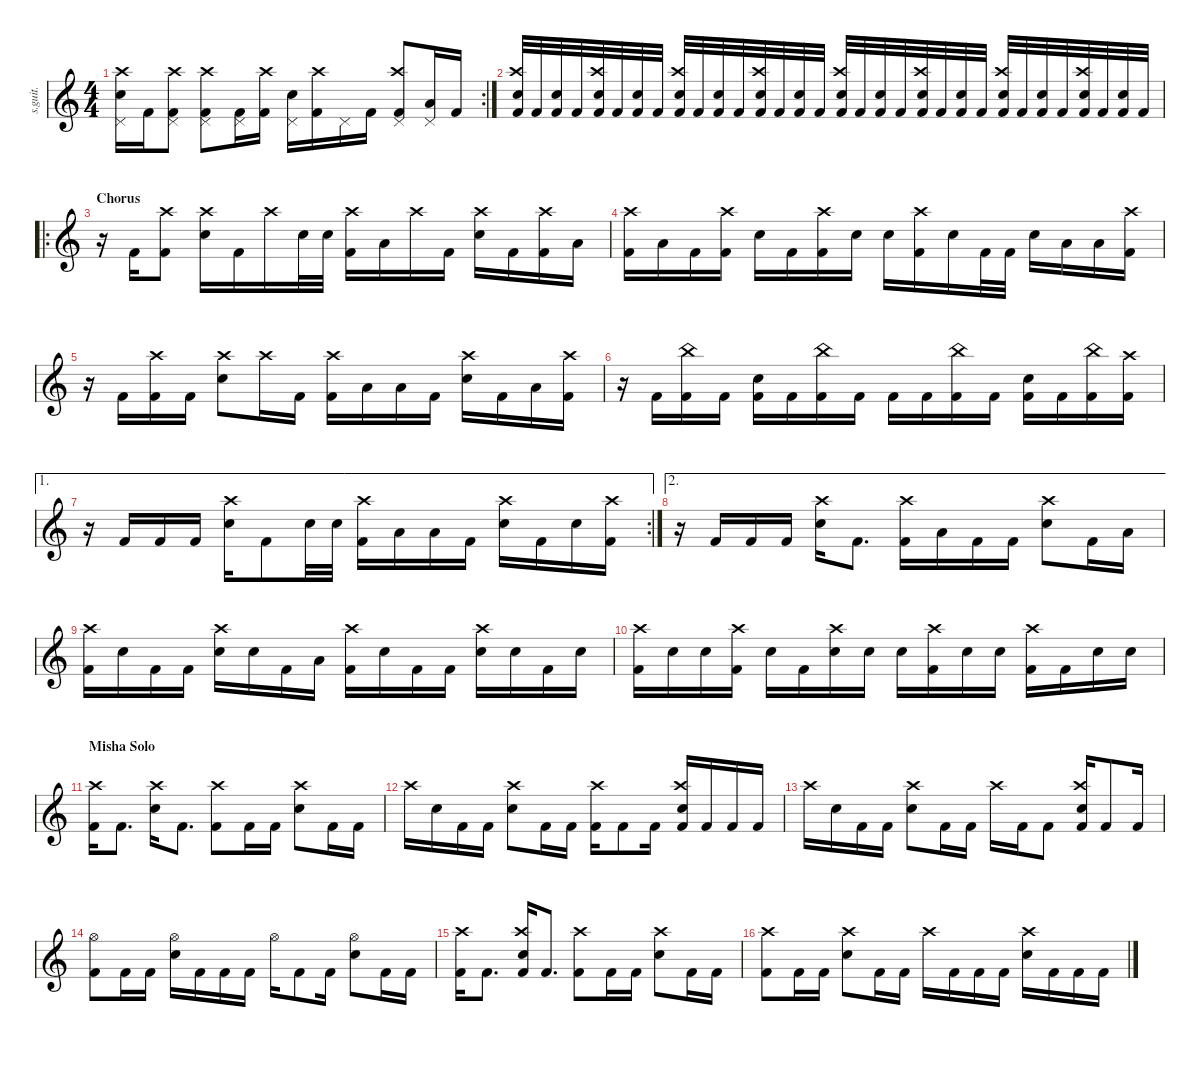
\defaultSystemsLayout 4
\hideDynamics
\bracketExtendMode nobrackets
\track ("" "s.guit.") {instrument percussion}
\staff {score}
\articulation defaults
\rc 2
\ts (4 4)
\tempo (116 hide)
\clef g2
\ks c
("Snare (hit) 2" "Pedal Hi-Hat (hit)" "Crash high (hit)").16{lyrics (0 "") lyrics (1 "") lyrics (2 "") lyrics (3 "") lyrics (4 "") dy f} "Kick (hit) 2".16{lyrics (0 "") lyrics (1 "") lyrics (2 "") lyrics (3 "") lyrics (4 "")} ("Kick (hit) 2" "Pedal Hi-Hat (hit)" "Crash high (hit)").8{lyrics (0 "") lyrics (1 "") lyrics (2 "") lyrics (3 "") lyrics (4 "")} ("Kick (hit) 2" "Pedal Hi-Hat (hit)" "Crash high (hit)").8{lyrics (0 "") lyrics (1 "") lyrics (2 "") lyrics (3 "") lyrics (4 "")} ("Kick (hit) 2" "Pedal Hi-Hat (hit)").16{lyrics (0 "") lyrics (1 "") lyrics (2 "") lyrics (3 "") lyrics (4 "")} ("Kick (hit) 2" "Crash high (hit)").16{lyrics (0 "") lyrics (1 "") lyrics (2 "") lyrics (3 "") lyrics (4 "")} ("Snare (hit) 2" "Pedal Hi-Hat (hit)").16{lyrics (0 "") lyrics (1 "") lyrics (2 "") lyrics (3 "") lyrics (4 "")} ("Kick (hit) 2" "Crash high (hit)").16{lyrics (0 "") lyrics (1 "") lyrics (2 "") lyrics (3 "") lyrics (4 "")} "Pedal Hi-Hat (hit)".16{lyrics (0 "") lyrics (1 "") lyrics (2 "") lyrics (3 "") lyrics (4 "")} "Kick (hit) 2".16{lyrics (0 "") lyrics (1 "") lyrics (2 "") lyrics (3 "") lyrics (4 "")} ("Kick (hit) 2" "Pedal Hi-Hat (hit)" "Crash high (hit)").8{lyrics (0 "") lyrics (1 "") lyrics (2 "") lyrics (3 "") lyrics (4 "")} ("Low Floor Tom (hit)" "Pedal Hi-Hat (hit)").16{lyrics (0 "") lyrics (1 "") lyrics (2 "") lyrics (3 "") lyrics (4 "")} "Kick (hit) 2".16{lyrics (0 "") lyrics (1 "") lyrics (2 "") lyrics (3 "") lyrics (4 "")} |
("Kick (hit) 2" "Snare (hit) 2" "Crash high (hit)").32{lyrics (0 "") lyrics (1 "") lyrics (2 "") lyrics (3 "") lyrics (4 "")} "Kick (hit) 2".32{lyrics (0 "") lyrics (1 "") lyrics (2 "") lyrics (3 "") lyrics (4 "")} ("Kick (hit) 2" "Snare (hit) 2").32{lyrics (0 "") lyrics (1 "") lyrics (2 "") lyrics (3 "") lyrics (4 "")} "Kick (hit) 2".32{lyrics (0 "") lyrics (1 "") lyrics (2 "") lyrics (3 "") lyrics (4 "")} ("Kick (hit) 2" "Snare (hit) 2" "Crash high (hit)").32{lyrics (0 "") lyrics (1 "") lyrics (2 "") lyrics (3 "") lyrics (4 "")} "Kick (hit) 2".32{lyrics (0 "") lyrics (1 "") lyrics (2 "") lyrics (3 "") lyrics (4 "")} ("Kick (hit) 2" "Snare (hit) 2").32{lyrics (0 "") lyrics (1 "") lyrics (2 "") lyrics (3 "") lyrics (4 "")} "Kick (hit) 2".32{lyrics (0 "") lyrics (1 "") lyrics (2 "") lyrics (3 "") lyrics (4 "")} ("Kick (hit) 2" "Snare (hit) 2" "Crash high (hit)").32{lyrics (0 "") lyrics (1 "") lyrics (2 "") lyrics (3 "") lyrics (4 "")} "Kick (hit) 2".32{lyrics (0 "") lyrics (1 "") lyrics (2 "") lyrics (3 "") lyrics (4 "")} ("Kick (hit) 2" "Snare (hit) 2").32{lyrics (0 "") lyrics (1 "") lyrics (2 "") lyrics (3 "") lyrics (4 "")} "Kick (hit) 2".32{lyrics (0 "") lyrics (1 "") lyrics (2 "") lyrics (3 "") lyrics (4 "")} ("Kick (hit) 2" "Snare (hit) 2" "Crash high (hit)").32{lyrics (0 "") lyrics (1 "") lyrics (2 "") lyrics (3 "") lyrics (4 "")} "Kick (hit) 2".32{lyrics (0 "") lyrics (1 "") lyrics (2 "") lyrics (3 "") lyrics (4 "")} ("Kick (hit) 2" "Snare (hit) 2").32{lyrics (0 "") lyrics (1 "") lyrics (2 "") lyrics (3 "") lyrics (4 "")} "Kick (hit) 2".32{lyrics (0 "") lyrics (1 "") lyrics (2 "") lyrics (3 "") lyrics (4 "")} ("Kick (hit) 2" "Snare (hit) 2" "Crash high (hit)").32{lyrics (0 "") lyrics (1 "") lyrics (2 "") lyrics (3 "") lyrics (4 "")} "Kick (hit) 2".32{lyrics (0 "") lyrics (1 "") lyrics (2 "") lyrics (3 "") lyrics (4 "")} ("Kick (hit) 2" "Snare (hit) 2").32{lyrics (0 "") lyrics (1 "") lyrics (2 "") lyrics (3 "") lyrics (4 "")} "Kick (hit) 2".32{lyrics (0 "") lyrics (1 "") lyrics (2 "") lyrics (3 "") lyrics (4 "")} ("Kick (hit) 2" "Snare (hit) 2" "Crash high (hit)").32{lyrics (0 "") lyrics (1 "") lyrics (2 "") lyrics (3 "") lyrics (4 "")} "Kick (hit) 2".32{lyrics (0 "") lyrics (1 "") lyrics (2 "") lyrics (3 "") lyrics (4 "")} ("Kick (hit) 2" "Snare (hit) 2").32{lyrics (0 "") lyrics (1 "") lyrics (2 "") lyrics (3 "") lyrics (4 "")} "Kick (hit) 2".32{lyrics (0 "") lyrics (1 "") lyrics (2 "") lyrics (3 "") lyrics (4 "")} ("Kick (hit) 2" "Snare (hit) 2" "Crash high (hit)").32{lyrics (0 "") lyrics (1 "") lyrics (2 "") lyrics (3 "") lyrics (4 "")} "Kick (hit) 2".32{lyrics (0 "") lyrics (1 "") lyrics (2 "") lyrics (3 "") lyrics (4 "")} ("Kick (hit) 2" "Snare (hit) 2").32{lyrics (0 "") lyrics (1 "") lyrics (2 "") lyrics (3 "") lyrics (4 "")} "Kick (hit) 2".32{lyrics (0 "") lyrics (1 "") lyrics (2 "") lyrics (3 "") lyrics (4 "")} ("Kick (hit) 2" "Snare (hit) 2" "Crash high (hit)").32{lyrics (0 "") lyrics (1 "") lyrics (2 "") lyrics (3 "") lyrics (4 "")} "Kick (hit) 2".32{lyrics (0 "") lyrics (1 "") lyrics (2 "") lyrics (3 "") lyrics (4 "")} ("Kick (hit) 2" "Snare (hit) 2").32{lyrics (0 "") lyrics (1 "") lyrics (2 "") lyrics (3 "") lyrics (4 "")} "Kick (hit) 2".32{lyrics (0 "") lyrics (1 "") lyrics (2 "") lyrics (3 "") lyrics (4 "")} |
\ro
\section ("" "Chorus")
r.16 "Kick (hit) 2".16{lyrics (0 "") lyrics (1 "") lyrics (2 "") lyrics (3 "") lyrics (4 "")} ("Kick (hit) 2" "Crash high (hit)").8{lyrics (0 "") lyrics (1 "") lyrics (2 "") lyrics (3 "") lyrics (4 "")} ("Snare (hit) 2" "Crash high (hit)").16{lyrics (0 "") lyrics (1 "") lyrics (2 "") lyrics (3 "") lyrics (4 "")} "Kick (hit) 2".16{lyrics (0 "") lyrics (1 "") lyrics (2 "") lyrics (3 "") lyrics (4 "")} "Crash high (hit)".16{lyrics (0 "") lyrics (1 "") lyrics (2 "") lyrics (3 "") lyrics (4 "")} "Snare (hit) 2".32{lyrics (0 "") lyrics (1 "") lyrics (2 "") lyrics (3 "") lyrics (4 "")} "Snare (hit) 2".32{lyrics (0 "") lyrics (1 "") lyrics (2 "") lyrics (3 "") lyrics (4 "")} ("Kick (hit) 2" "Crash high (hit)").16{lyrics (0 "") lyrics (1 "") lyrics (2 "") lyrics (3 "") lyrics (4 "")} "Low Tom (hit)".16{lyrics (0 "") lyrics (1 "") lyrics (2 "") lyrics (3 "") lyrics (4 "")} "Crash high (hit)".16{lyrics (0 "") lyrics (1 "") lyrics (2 "") lyrics (3 "") lyrics (4 "")} "Kick (hit) 2".16{lyrics (0 "") lyrics (1 "") lyrics (2 "") lyrics (3 "") lyrics (4 "")} ("Snare (hit) 2" "Crash high (hit)").16{lyrics (0 "") lyrics (1 "") lyrics (2 "") lyrics (3 "") lyrics (4 "")} "Kick (hit) 2".16{lyrics (0 "") lyrics (1 "") lyrics (2 "") lyrics (3 "") lyrics (4 "")} ("Kick (hit) 2" "Crash high (hit)").16{lyrics (0 "") lyrics (1 "") lyrics (2 "") lyrics (3 "") lyrics (4 "")} "Low Floor Tom (hit)".16{lyrics (0 "") lyrics (1 "") lyrics (2 "") lyrics (3 "") lyrics (4 "")} |
("Kick (hit) 2" "Crash high (hit)").16{lyrics (0 "") lyrics (1 "") lyrics (2 "") lyrics (3 "") lyrics (4 "")} "Low Floor Tom (hit)".16{lyrics (0 "") lyrics (1 "") lyrics (2 "") lyrics (3 "") lyrics (4 "")} "Kick (hit) 2".16{lyrics (0 "") lyrics (1 "") lyrics (2 "") lyrics (3 "") lyrics (4 "")} ("Kick (hit) 2" "Crash high (hit)").16{lyrics (0 "") lyrics (1 "") lyrics (2 "") lyrics (3 "") lyrics (4 "")} "Snare (hit) 2".16{lyrics (0 "") lyrics (1 "") lyrics (2 "") lyrics (3 "") lyrics (4 "")} "Kick (hit) 2".16{lyrics (0 "") lyrics (1 "") lyrics (2 "") lyrics (3 "") lyrics (4 "")} ("Kick (hit) 2" "Crash high (hit)").16{lyrics (0 "") lyrics (1 "") lyrics (2 "") lyrics (3 "") lyrics (4 "")} "Snare (hit) 2".16{lyrics (0 "") lyrics (1 "") lyrics (2 "") lyrics (3 "") lyrics (4 "")} "Snare (hit) 2".16{lyrics (0 "") lyrics (1 "") lyrics (2 "") lyrics (3 "") lyrics (4 "")} ("Kick (hit) 2" "Crash high (hit)").16{lyrics (0 "") lyrics (1 "") lyrics (2 "") lyrics (3 "") lyrics (4 "")} "Snare (hit) 2".16{lyrics (0 "") lyrics (1 "") lyrics (2 "") lyrics (3 "") lyrics (4 "")} "Kick (hit) 2".32{lyrics (0 "") lyrics (1 "") lyrics (2 "") lyrics (3 "") lyrics (4 "")} "Kick (hit) 2".32{lyrics (0 "") lyrics (1 "") lyrics (2 "") lyrics (3 "") lyrics (4 "")} "Snare (hit) 2".16{lyrics (0 "") lyrics (1 "") lyrics (2 "") lyrics (3 "") lyrics (4 "")} "Low Tom (hit)".16{lyrics (0 "") lyrics (1 "") lyrics (2 "") lyrics (3 "") lyrics (4 "")} "Low Floor Tom (hit)".16{lyrics (0 "") lyrics (1 "") lyrics (2 "") lyrics (3 "") lyrics (4 "")} ("Kick (hit) 2" "Crash high (hit)").16{lyrics (0 "") lyrics (1 "") lyrics (2 "") lyrics (3 "") lyrics (4 "")} |
r.16 "Kick (hit) 2".16{lyrics (0 "") lyrics (1 "") lyrics (2 "") lyrics (3 "") lyrics (4 "")} ("Kick (hit) 2" "Crash high (hit)").16{lyrics (0 "") lyrics (1 "") lyrics (2 "") lyrics (3 "") lyrics (4 "")} "Kick (hit) 2".16{lyrics (0 "") lyrics (1 "") lyrics (2 "") lyrics (3 "") lyrics (4 "")} ("Snare (hit) 2" "Crash high (hit)").8{lyrics (0 "") lyrics (1 "") lyrics (2 "") lyrics (3 "") lyrics (4 "")} "Crash high (hit)".16{lyrics (0 "") lyrics (1 "") lyrics (2 "") lyrics (3 "") lyrics (4 "")} "Kick (hit) 2".16{lyrics (0 "") lyrics (1 "") lyrics (2 "") lyrics (3 "") lyrics (4 "")} ("Kick (hit) 2" "Crash high (hit)").16{lyrics (0 "") lyrics (1 "") lyrics (2 "") lyrics (3 "") lyrics (4 "")} "Low Floor Tom (hit)".16{lyrics (0 "") lyrics (1 "") lyrics (2 "") lyrics (3 "") lyrics (4 "")} "Low Floor Tom (hit)".16{lyrics (0 "") lyrics (1 "") lyrics (2 "") lyrics (3 "") lyrics (4 "")} "Kick (hit) 2".16{lyrics (0 "") lyrics (1 "") lyrics (2 "") lyrics (3 "") lyrics (4 "")} ("Snare (hit) 2" "Crash high (hit)").16{lyrics (0 "") lyrics (1 "") lyrics (2 "") lyrics (3 "") lyrics (4 "")} "Kick (hit) 2".16{lyrics (0 "") lyrics (1 "") lyrics (2 "") lyrics (3 "") lyrics (4 "")} "Low Floor Tom (hit)".16{lyrics (0 "") lyrics (1 "") lyrics (2 "") lyrics (3 "") lyrics (4 "")} ("Kick (hit) 2" "Crash high (hit)").16{lyrics (0 "") lyrics (1 "") lyrics (2 "") lyrics (3 "") lyrics (4 "")} |
r.16 "Kick (hit) 2".16{lyrics (0 "") lyrics (1 "") lyrics (2 "") lyrics (3 "") lyrics (4 "")} ("Kick (hit) 2" "China (hit)").16{lyrics (0 "") lyrics (1 "") lyrics (2 "") lyrics (3 "") lyrics (4 "")} "Kick (hit) 2".16{lyrics (0 "") lyrics (1 "") lyrics (2 "") lyrics (3 "") lyrics (4 "")} ("Kick (hit) 2" "Snare (hit) 2").16{lyrics (0 "") lyrics (1 "") lyrics (2 "") lyrics (3 "") lyrics (4 "")} "Kick (hit) 2".16{lyrics (0 "") lyrics (1 "") lyrics (2 "") lyrics (3 "") lyrics (4 "")} ("Kick (hit) 2" "China (hit)").16{lyrics (0 "") lyrics (1 "") lyrics (2 "") lyrics (3 "") lyrics (4 "")} "Kick (hit) 2".16{lyrics (0 "") lyrics (1 "") lyrics (2 "") lyrics (3 "") lyrics (4 "")} "Kick (hit) 2".16{lyrics (0 "") lyrics (1 "") lyrics (2 "") lyrics (3 "") lyrics (4 "")} "Kick (hit) 2".16{lyrics (0 "") lyrics (1 "") lyrics (2 "") lyrics (3 "") lyrics (4 "")} ("Kick (hit) 2" "China (hit)").16{lyrics (0 "") lyrics (1 "") lyrics (2 "") lyrics (3 "") lyrics (4 "")} "Kick (hit) 2".16{lyrics (0 "") lyrics (1 "") lyrics (2 "") lyrics (3 "") lyrics (4 "")} ("Kick (hit) 2" "Snare (hit) 2").16{lyrics (0 "") lyrics (1 "") lyrics (2 "") lyrics (3 "") lyrics (4 "")} "Kick (hit) 2".16{lyrics (0 "") lyrics (1 "") lyrics (2 "") lyrics (3 "") lyrics (4 "")} ("Kick (hit) 2" "China (hit)").16{lyrics (0 "") lyrics (1 "") lyrics (2 "") lyrics (3 "") lyrics (4 "")} ("Kick (hit) 2" "Crash high (hit)").16{lyrics (0 "") lyrics (1 "") lyrics (2 "") lyrics (3 "") lyrics (4 "")} |
\ae 1
\rc 2
r.16 "Kick (hit) 2".16{lyrics (0 "") lyrics (1 "") lyrics (2 "") lyrics (3 "") lyrics (4 "")} "Kick (hit) 2".16{lyrics (0 "") lyrics (1 "") lyrics (2 "") lyrics (3 "") lyrics (4 "")} "Kick (hit) 2".16{lyrics (0 "") lyrics (1 "") lyrics (2 "") lyrics (3 "") lyrics (4 "")} ("Snare (hit) 2" "Crash high (hit)").16{lyrics (0 "") lyrics (1 "") lyrics (2 "") lyrics (3 "") lyrics (4 "")} "Kick (hit) 2".8{lyrics (0 "") lyrics (1 "") lyrics (2 "") lyrics (3 "") lyrics (4 "")} "Snare (hit) 2".32{lyrics (0 "") lyrics (1 "") lyrics (2 "") lyrics (3 "") lyrics (4 "")} "Snare (hit) 2".32{lyrics (0 "") lyrics (1 "") lyrics (2 "") lyrics (3 "") lyrics (4 "")} ("Kick (hit) 2" "Crash high (hit)").16{lyrics (0 "") lyrics (1 "") lyrics (2 "") lyrics (3 "") lyrics (4 "")} "Low Tom (hit)".16{lyrics (0 "") lyrics (1 "") lyrics (2 "") lyrics (3 "") lyrics (4 "")} "Low Floor Tom (hit)".16{lyrics (0 "") lyrics (1 "") lyrics (2 "") lyrics (3 "") lyrics (4 "")} "Kick (hit) 2".16{lyrics (0 "") lyrics (1 "") lyrics (2 "") lyrics (3 "") lyrics (4 "")} ("Snare (hit) 2" "Crash high (hit)").16{lyrics (0 "") lyrics (1 "") lyrics (2 "") lyrics (3 "") lyrics (4 "")} "Kick (hit) 2".16{lyrics (0 "") lyrics (1 "") lyrics (2 "") lyrics (3 "") lyrics (4 "")} "Snare (hit) 2".16{lyrics (0 "") lyrics (1 "") lyrics (2 "") lyrics (3 "") lyrics (4 "")} ("Kick (hit) 2" "Crash high (hit)").16{lyrics (0 "") lyrics (1 "") lyrics (2 "") lyrics (3 "") lyrics (4 "")} |
\ae 2
r.16 "Kick (hit) 2".16{lyrics (0 "") lyrics (1 "") lyrics (2 "") lyrics (3 "") lyrics (4 "")} "Kick (hit) 2".16{lyrics (0 "") lyrics (1 "") lyrics (2 "") lyrics (3 "") lyrics (4 "")} "Kick (hit) 2".16{lyrics (0 "") lyrics (1 "") lyrics (2 "") lyrics (3 "") lyrics (4 "")} ("Snare (hit) 2" "Crash high (hit)").16{lyrics (0 "") lyrics (1 "") lyrics (2 "") lyrics (3 "") lyrics (4 "")} "Kick (hit) 2".8{d lyrics (0 "") lyrics (1 "") lyrics (2 "") lyrics (3 "") lyrics (4 "")} ("Kick (hit) 2" "Crash high (hit)").16{lyrics (0 "") lyrics (1 "") lyrics (2 "") lyrics (3 "") lyrics (4 "")} "Low Tom (hit)".16{lyrics (0 "") lyrics (1 "") lyrics (2 "") lyrics (3 "") lyrics (4 "")} "Kick (hit) 2".16{lyrics (0 "") lyrics (1 "") lyrics (2 "") lyrics (3 "") lyrics (4 "")} "Kick (hit) 2".16{lyrics (0 "") lyrics (1 "") lyrics (2 "") lyrics (3 "") lyrics (4 "")} ("Snare (hit) 2" "Crash high (hit)").8{lyrics (0 "") lyrics (1 "") lyrics (2 "") lyrics (3 "") lyrics (4 "")} "Kick (hit) 2".16{lyrics (0 "") lyrics (1 "") lyrics (2 "") lyrics (3 "") lyrics (4 "")} "Low Tom (hit)".16{lyrics (0 "") lyrics (1 "") lyrics (2 "") lyrics (3 "") lyrics (4 "")} |
("Kick (hit) 2" "Crash high (hit)").16{lyrics (0 "") lyrics (1 "") lyrics (2 "") lyrics (3 "") lyrics (4 "")} "Snare (hit) 2".16{lyrics (0 "") lyrics (1 "") lyrics (2 "") lyrics (3 "") lyrics (4 "")} "Kick (hit) 2".16{lyrics (0 "") lyrics (1 "") lyrics (2 "") lyrics (3 "") lyrics (4 "")} "Kick (hit) 2".16{lyrics (0 "") lyrics (1 "") lyrics (2 "") lyrics (3 "") lyrics (4 "")} ("Snare (hit) 2" "Crash high (hit)").16{lyrics (0 "") lyrics (1 "") lyrics (2 "") lyrics (3 "") lyrics (4 "")} "Snare (hit) 2".16{lyrics (0 "") lyrics (1 "") lyrics (2 "") lyrics (3 "") lyrics (4 "")} "Kick (hit) 2".16{lyrics (0 "") lyrics (1 "") lyrics (2 "") lyrics (3 "") lyrics (4 "")} "Low Tom (hit)".16{lyrics (0 "") lyrics (1 "") lyrics (2 "") lyrics (3 "") lyrics (4 "")} ("Kick (hit) 2" "Crash high (hit)").16{lyrics (0 "") lyrics (1 "") lyrics (2 "") lyrics (3 "") lyrics (4 "")} "Snare (hit) 2".16{lyrics (0 "") lyrics (1 "") lyrics (2 "") lyrics (3 "") lyrics (4 "")} "Kick (hit) 2".16{lyrics (0 "") lyrics (1 "") lyrics (2 "") lyrics (3 "") lyrics (4 "")} "Kick (hit) 2".16{lyrics (0 "") lyrics (1 "") lyrics (2 "") lyrics (3 "") lyrics (4 "")} ("Snare (hit) 2" "Crash high (hit)").16{lyrics (0 "") lyrics (1 "") lyrics (2 "") lyrics (3 "") lyrics (4 "")} "Snare (hit) 2".16{lyrics (0 "") lyrics (1 "") lyrics (2 "") lyrics (3 "") lyrics (4 "")} "Kick (hit) 2".16{lyrics (0 "") lyrics (1 "") lyrics (2 "") lyrics (3 "") lyrics (4 "")} "Snare (hit) 2".16{lyrics (0 "") lyrics (1 "") lyrics (2 "") lyrics (3 "") lyrics (4 "")} |
("Kick (hit) 2" "Crash high (hit)").16{lyrics (0 "") lyrics (1 "") lyrics (2 "") lyrics (3 "") lyrics (4 "")} "Snare (hit) 2".16{lyrics (0 "") lyrics (1 "") lyrics (2 "") lyrics (3 "") lyrics (4 "")} "Snare (hit) 2".16{lyrics (0 "") lyrics (1 "") lyrics (2 "") lyrics (3 "") lyrics (4 "")} ("Kick (hit) 2" "Crash high (hit)").16{lyrics (0 "") lyrics (1 "") lyrics (2 "") lyrics (3 "") lyrics (4 "")} "Snare (hit) 2".16{lyrics (0 "") lyrics (1 "") lyrics (2 "") lyrics (3 "") lyrics (4 "")} "Kick (hit) 2".16{lyrics (0 "") lyrics (1 "") lyrics (2 "") lyrics (3 "") lyrics (4 "")} ("Snare (hit) 2" "Crash high (hit)").16{lyrics (0 "") lyrics (1 "") lyrics (2 "") lyrics (3 "") lyrics (4 "")} "Snare (hit) 2".16{lyrics (0 "") lyrics (1 "") lyrics (2 "") lyrics (3 "") lyrics (4 "")} "Snare (hit) 2".16{lyrics (0 "") lyrics (1 "") lyrics (2 "") lyrics (3 "") lyrics (4 "")} ("Kick (hit) 2" "Crash high (hit)").16{lyrics (0 "") lyrics (1 "") lyrics (2 "") lyrics (3 "") lyrics (4 "")} "Snare (hit) 2".16{lyrics (0 "") lyrics (1 "") lyrics (2 "") lyrics (3 "") lyrics (4 "")} "Snare (hit) 2".16{lyrics (0 "") lyrics (1 "") lyrics (2 "") lyrics (3 "") lyrics (4 "")} ("Kick (hit) 2" "Crash high (hit)").16{lyrics (0 "") lyrics (1 "") lyrics (2 "") lyrics (3 "") lyrics (4 "")} "Kick (hit) 2".16{lyrics (0 "") lyrics (1 "") lyrics (2 "") lyrics (3 "") lyrics (4 "")} "Snare (hit) 2".16{lyrics (0 "") lyrics (1 "") lyrics (2 "") lyrics (3 "") lyrics (4 "")} "Snare (hit) 2".16{lyrics (0 "") lyrics (1 "") lyrics (2 "") lyrics (3 "") lyrics (4 "")} |
\section ("" "Misha Solo")
("Kick (hit) 2" "Crash high (hit)").16{lyrics (0 "") lyrics (1 "") lyrics (2 "") lyrics (3 "") lyrics (4 "")} "Kick (hit) 2".8{d lyrics (0 "") lyrics (1 "") lyrics (2 "") lyrics (3 "") lyrics (4 "")} ("Snare (hit) 2" "Crash high (hit)").16{lyrics (0 "") lyrics (1 "") lyrics (2 "") lyrics (3 "") lyrics (4 "")} "Kick (hit) 2".8{d lyrics (0 "") lyrics (1 "") lyrics (2 "") lyrics (3 "") lyrics (4 "")} ("Kick (hit) 2" "Crash high (hit)").8{lyrics (0 "") lyrics (1 "") lyrics (2 "") lyrics (3 "") lyrics (4 "")} "Kick (hit) 2".16{lyrics (0 "") lyrics (1 "") lyrics (2 "") lyrics (3 "") lyrics (4 "")} "Kick (hit) 2".16{lyrics (0 "") lyrics (1 "") lyrics (2 "") lyrics (3 "") lyrics (4 "")} ("Snare (hit) 2" "Crash high (hit)").8{lyrics (0 "") lyrics (1 "") lyrics (2 "") lyrics (3 "") lyrics (4 "")} "Kick (hit) 2".16{lyrics (0 "") lyrics (1 "") lyrics (2 "") lyrics (3 "") lyrics (4 "")} "Kick (hit) 2".16{lyrics (0 "") lyrics (1 "") lyrics (2 "") lyrics (3 "") lyrics (4 "")} |
"Crash high (hit)".16{lyrics (0 "") lyrics (1 "") lyrics (2 "") lyrics (3 "") lyrics (4 "")} "Snare (hit) 2".16{lyrics (0 "") lyrics (1 "") lyrics (2 "") lyrics (3 "") lyrics (4 "")} "Kick (hit) 2".16{lyrics (0 "") lyrics (1 "") lyrics (2 "") lyrics (3 "") lyrics (4 "")} "Kick (hit) 2".16{lyrics (0 "") lyrics (1 "") lyrics (2 "") lyrics (3 "") lyrics (4 "")} ("Snare (hit) 2" "Crash high (hit)").8{lyrics (0 "") lyrics (1 "") lyrics (2 "") lyrics (3 "") lyrics (4 "")} "Kick (hit) 2".16{lyrics (0 "") lyrics (1 "") lyrics (2 "") lyrics (3 "") lyrics (4 "")} "Kick (hit) 2".16{lyrics (0 "") lyrics (1 "") lyrics (2 "") lyrics (3 "") lyrics (4 "")} ("Kick (hit) 2" "Crash high (hit)").16{lyrics (0 "") lyrics (1 "") lyrics (2 "") lyrics (3 "") lyrics (4 "")} "Kick (hit) 2".8{lyrics (0 "") lyrics (1 "") lyrics (2 "") lyrics (3 "") lyrics (4 "")} "Kick (hit) 2".16{lyrics (0 "") lyrics (1 "") lyrics (2 "") lyrics (3 "") lyrics (4 "")} ("Kick (hit) 2" "Snare (hit) 2" "Crash high (hit)").16{lyrics (0 "") lyrics (1 "") lyrics (2 "") lyrics (3 "") lyrics (4 "")} "Kick (hit) 2".16{lyrics (0 "") lyrics (1 "") lyrics (2 "") lyrics (3 "") lyrics (4 "")} "Kick (hit) 2".16{lyrics (0 "") lyrics (1 "") lyrics (2 "") lyrics (3 "") lyrics (4 "")} "Kick (hit) 2".16{lyrics (0 "") lyrics (1 "") lyrics (2 "") lyrics (3 "") lyrics (4 "")} |
"Crash high (hit)".16{lyrics (0 "") lyrics (1 "") lyrics (2 "") lyrics (3 "") lyrics (4 "")} "Snare (hit) 2".16{lyrics (0 "") lyrics (1 "") lyrics (2 "") lyrics (3 "") lyrics (4 "")} "Kick (hit) 2".16{lyrics (0 "") lyrics (1 "") lyrics (2 "") lyrics (3 "") lyrics (4 "")} "Kick (hit) 2".16{lyrics (0 "") lyrics (1 "") lyrics (2 "") lyrics (3 "") lyrics (4 "")} ("Snare (hit) 2" "Crash high (hit)").8{lyrics (0 "") lyrics (1 "") lyrics (2 "") lyrics (3 "") lyrics (4 "")} "Kick (hit) 2".16{lyrics (0 "") lyrics (1 "") lyrics (2 "") lyrics (3 "") lyrics (4 "")} "Kick (hit) 2".16{lyrics (0 "") lyrics (1 "") lyrics (2 "") lyrics (3 "") lyrics (4 "")} "Crash high (hit)".16{lyrics (0 "") lyrics (1 "") lyrics (2 "") lyrics (3 "") lyrics (4 "")} "Kick (hit) 2".16{lyrics (0 "") lyrics (1 "") lyrics (2 "") lyrics (3 "") lyrics (4 "")} "Kick (hit) 2".8{lyrics (0 "") lyrics (1 "") lyrics (2 "") lyrics (3 "") lyrics (4 "")} ("Kick (hit) 2" "Snare (hit) 2" "Crash high (hit)").16{lyrics (0 "") lyrics (1 "") lyrics (2 "") lyrics (3 "") lyrics (4 "")} "Kick (hit) 2".8{lyrics (0 "") lyrics (1 "") lyrics (2 "") lyrics (3 "") lyrics (4 "")} "Kick (hit) 2".16{lyrics (0 "") lyrics (1 "") lyrics (2 "") lyrics (3 "") lyrics (4 "")} |
("Kick (hit) 2" "Hi-Hat (open)").8{lyrics (0 "") lyrics (1 "") lyrics (2 "") lyrics (3 "") lyrics (4 "")} "Kick (hit) 2".16{lyrics (0 "") lyrics (1 "") lyrics (2 "") lyrics (3 "") lyrics (4 "")} "Kick (hit) 2".16{lyrics (0 "") lyrics (1 "") lyrics (2 "") lyrics (3 "") lyrics (4 "")} ("Snare (hit) 2" "Hi-Hat (open)").16{lyrics (0 "") lyrics (1 "") lyrics (2 "") lyrics (3 "") lyrics (4 "")} "Kick (hit) 2".16{lyrics (0 "") lyrics (1 "") lyrics (2 "") lyrics (3 "") lyrics (4 "")} "Kick (hit) 2".16{lyrics (0 "") lyrics (1 "") lyrics (2 "") lyrics (3 "") lyrics (4 "")} "Kick (hit) 2".16{lyrics (0 "") lyrics (1 "") lyrics (2 "") lyrics (3 "") lyrics (4 "")} "Hi-Hat (open)".16{lyrics (0 "") lyrics (1 "") lyrics (2 "") lyrics (3 "") lyrics (4 "")} "Kick (hit) 2".8{lyrics (0 "") lyrics (1 "") lyrics (2 "") lyrics (3 "") lyrics (4 "")} "Kick (hit) 2".16{lyrics (0 "") lyrics (1 "") lyrics (2 "") lyrics (3 "") lyrics (4 "")} ("Snare (hit) 2" "Hi-Hat (open)").8{lyrics (0 "") lyrics (1 "") lyrics (2 "") lyrics (3 "") lyrics (4 "")} "Kick (hit) 2".16{lyrics (0 "") lyrics (1 "") lyrics (2 "") lyrics (3 "") lyrics (4 "")} "Kick (hit) 2".16{lyrics (0 "") lyrics (1 "") lyrics (2 "") lyrics (3 "") lyrics (4 "")} |
("Kick (hit) 2" "Crash high (hit)").16{lyrics (0 "") lyrics (1 "") lyrics (2 "") lyrics (3 "") lyrics (4 "")} "Kick (hit) 2".8{d lyrics (0 "") lyrics (1 "") lyrics (2 "") lyrics (3 "") lyrics (4 "")} ("Kick (hit) 2" "Snare (hit) 2" "Crash high (hit)").16{lyrics (0 "") lyrics (1 "") lyrics (2 "") lyrics (3 "") lyrics (4 "")} "Kick (hit) 2".8{d lyrics (0 "") lyrics (1 "") lyrics (2 "") lyrics (3 "") lyrics (4 "")} ("Kick (hit) 2" "Crash high (hit)").8{lyrics (0 "") lyrics (1 "") lyrics (2 "") lyrics (3 "") lyrics (4 "")} "Kick (hit) 2".16{lyrics (0 "") lyrics (1 "") lyrics (2 "") lyrics (3 "") lyrics (4 "")} "Kick (hit) 2".16{lyrics (0 "") lyrics (1 "") lyrics (2 "") lyrics (3 "") lyrics (4 "")} ("Snare (hit) 2" "Crash high (hit)").8{lyrics (0 "") lyrics (1 "") lyrics (2 "") lyrics (3 "") lyrics (4 "")} "Kick (hit) 2".16{lyrics (0 "") lyrics (1 "") lyrics (2 "") lyrics (3 "") lyrics (4 "")} "Kick (hit) 2".16{lyrics (0 "") lyrics (1 "") lyrics (2 "") lyrics (3 "") lyrics (4 "")} |
("Kick (hit) 2" "Crash high (hit)").8{lyrics (0 "") lyrics (1 "") lyrics (2 "") lyrics (3 "") lyrics (4 "")} "Kick (hit) 2".16{lyrics (0 "") lyrics (1 "") lyrics (2 "") lyrics (3 "") lyrics (4 "")} "Kick (hit) 2".16{lyrics (0 "") lyrics (1 "") lyrics (2 "") lyrics (3 "") lyrics (4 "")} ("Snare (hit) 2" "Crash high (hit)").8{lyrics (0 "") lyrics (1 "") lyrics (2 "") lyrics (3 "") lyrics (4 "")} "Kick (hit) 2".16{lyrics (0 "") lyrics (1 "") lyrics (2 "") lyrics (3 "") lyrics (4 "")} "Kick (hit) 2".16{lyrics (0 "") lyrics (1 "") lyrics (2 "") lyrics (3 "") lyrics (4 "")} "Crash high (hit)".16{lyrics (0 "") lyrics (1 "") lyrics (2 "") lyrics (3 "") lyrics (4 "")} "Kick (hit) 2".16{lyrics (0 "") lyrics (1 "") lyrics (2 "") lyrics (3 "") lyrics (4 "")} "Kick (hit) 2".16{lyrics (0 "") lyrics (1 "") lyrics (2 "") lyrics (3 "") lyrics (4 "")} "Kick (hit) 2".16{lyrics (0 "") lyrics (1 "") lyrics (2 "") lyrics (3 "") lyrics (4 "")} ("Snare (hit) 2" "Crash high (hit)").16{lyrics (0 "") lyrics (1 "") lyrics (2 "") lyrics (3 "") lyrics (4 "")} "Kick (hit) 2".16{lyrics (0 "") lyrics (1 "") lyrics (2 "") lyrics (3 "") lyrics (4 "")} "Kick (hit) 2".16{lyrics (0 "") lyrics (1 "") lyrics (2 "") lyrics (3 "") lyrics (4 "")} "Kick (hit) 2".16{lyrics (0 "") lyrics (1 "") lyrics (2 "") lyrics (3 "") lyrics (4 "")}
